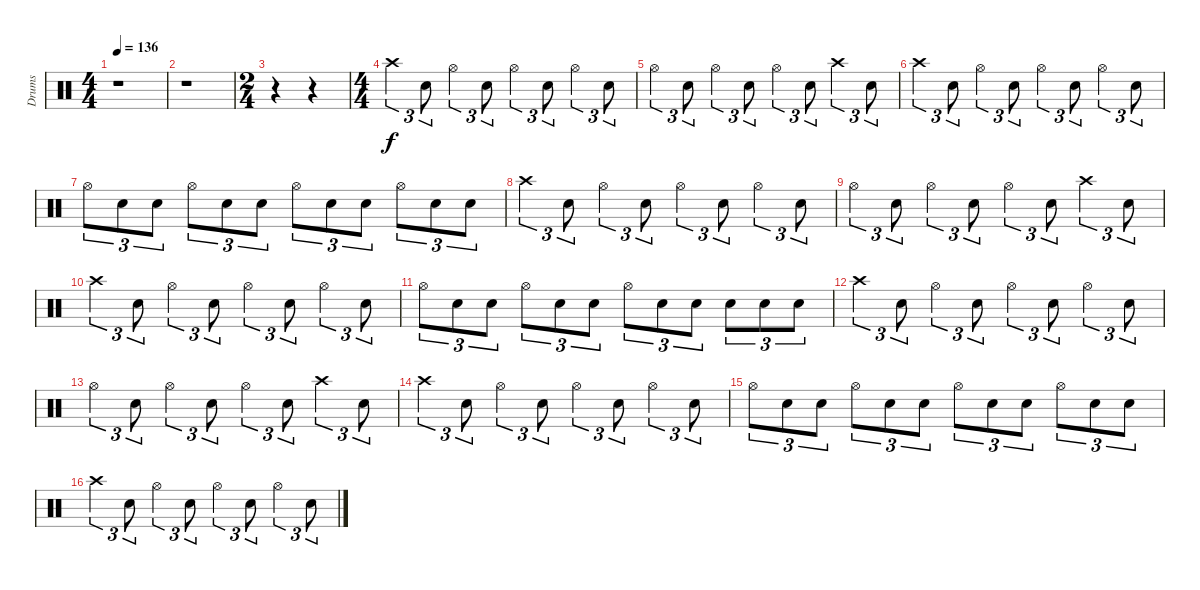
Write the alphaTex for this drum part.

\track ("Drums" "Drums") {instrument percussion}
\staff {score}
\articulation defaults
\ts (4 4)
\tempo 136
\clef neutral
\ks c
r.1{dy f} |
r.1 |
\ts (2 4)
r.4 r.4 |
\ts (4 4)
"Crash high (hit)".4{tu (3 2)} "Snare (hit) 2".8{tu (3 2)} "Hi-Hat (open)".4{tu (3 2)} "Snare (hit) 2".8{tu (3 2)} "Hi-Hat (open)".4{tu (3 2)} "Snare (hit) 2".8{tu (3 2)} "Hi-Hat (open)".4{tu (3 2)} "Snare (hit) 2".8{tu (3 2)} |
"Hi-Hat (open)".4{tu (3 2)} "Snare (hit) 2".8{tu (3 2)} "Hi-Hat (open)".4{tu (3 2)} "Snare (hit) 2".8{tu (3 2)} "Hi-Hat (open)".4{tu (3 2)} "Snare (hit) 2".8{tu (3 2)} "Crash high (hit)".4{tu (3 2)} "Snare (hit) 2".8{tu (3 2)} |
"Crash high (hit)".4{tu (3 2)} "Snare (hit) 2".8{tu (3 2)} "Hi-Hat (open)".4{tu (3 2)} "Snare (hit) 2".8{tu (3 2)} "Hi-Hat (open)".4{tu (3 2)} "Snare (hit) 2".8{tu (3 2)} "Hi-Hat (open)".4{tu (3 2)} "Snare (hit) 2".8{tu (3 2)} |
"Hi-Hat (open)".8{tu (3 2)} "Snare (hit) 2".8{tu (3 2)} "Snare (hit) 2".8{tu (3 2)} "Hi-Hat (open)".8{tu (3 2)} "Snare (hit) 2".8{tu (3 2)} "Snare (hit) 2".8{tu (3 2)} "Hi-Hat (open)".8{tu (3 2)} "Snare (hit) 2".8{tu (3 2)} "Snare (hit) 2".8{tu (3 2)} "Hi-Hat (open)".8{tu (3 2)} "Snare (hit) 2".8{tu (3 2)} "Snare (hit) 2".8{tu (3 2)} |
"Crash high (hit)".4{tu (3 2)} "Snare (hit) 2".8{tu (3 2)} "Hi-Hat (open)".4{tu (3 2)} "Snare (hit) 2".8{tu (3 2)} "Hi-Hat (open)".4{tu (3 2)} "Snare (hit) 2".8{tu (3 2)} "Hi-Hat (open)".4{tu (3 2)} "Snare (hit) 2".8{tu (3 2)} |
"Hi-Hat (open)".4{tu (3 2)} "Snare (hit) 2".8{tu (3 2)} "Hi-Hat (open)".4{tu (3 2)} "Snare (hit) 2".8{tu (3 2)} "Hi-Hat (open)".4{tu (3 2)} "Snare (hit) 2".8{tu (3 2)} "Crash high (hit)".4{tu (3 2)} "Snare (hit) 2".8{tu (3 2)} |
"Crash high (hit)".4{tu (3 2)} "Snare (hit) 2".8{tu (3 2)} "Hi-Hat (open)".4{tu (3 2)} "Snare (hit) 2".8{tu (3 2)} "Hi-Hat (open)".4{tu (3 2)} "Snare (hit) 2".8{tu (3 2)} "Hi-Hat (open)".4{tu (3 2)} "Snare (hit) 2".8{tu (3 2)} |
"Hi-Hat (open)".8{tu (3 2)} "Snare (hit) 2".8{tu (3 2)} "Snare (hit) 2".8{tu (3 2)} "Hi-Hat (open)".8{tu (3 2)} "Snare (hit) 2".8{tu (3 2)} "Snare (hit) 2".8{tu (3 2)} "Hi-Hat (open)".8{tu (3 2)} "Snare (hit) 2".8{tu (3 2)} "Snare (hit) 2".8{tu (3 2)} "Snare (hit) 2".8{tu (3 2)} "Snare (hit) 2".8{tu (3 2)} "Snare (hit) 2".8{tu (3 2)} |
"Crash high (hit)".4{tu (3 2)} "Snare (hit) 2".8{tu (3 2)} "Hi-Hat (open)".4{tu (3 2)} "Snare (hit) 2".8{tu (3 2)} "Hi-Hat (open)".4{tu (3 2)} "Snare (hit) 2".8{tu (3 2)} "Hi-Hat (open)".4{tu (3 2)} "Snare (hit) 2".8{tu (3 2)} |
"Hi-Hat (open)".4{tu (3 2)} "Snare (hit) 2".8{tu (3 2)} "Hi-Hat (open)".4{tu (3 2)} "Snare (hit) 2".8{tu (3 2)} "Hi-Hat (open)".4{tu (3 2)} "Snare (hit) 2".8{tu (3 2)} "Crash high (hit)".4{tu (3 2)} "Snare (hit) 2".8{tu (3 2)} |
"Crash high (hit)".4{tu (3 2)} "Snare (hit) 2".8{tu (3 2)} "Hi-Hat (open)".4{tu (3 2)} "Snare (hit) 2".8{tu (3 2)} "Hi-Hat (open)".4{tu (3 2)} "Snare (hit) 2".8{tu (3 2)} "Hi-Hat (open)".4{tu (3 2)} "Snare (hit) 2".8{tu (3 2)} |
"Hi-Hat (open)".8{tu (3 2)} "Snare (hit) 2".8{tu (3 2)} "Snare (hit) 2".8{tu (3 2)} "Hi-Hat (open)".8{tu (3 2)} "Snare (hit) 2".8{tu (3 2)} "Snare (hit) 2".8{tu (3 2)} "Hi-Hat (open)".8{tu (3 2)} "Snare (hit) 2".8{tu (3 2)} "Snare (hit) 2".8{tu (3 2)} "Hi-Hat (open)".8{tu (3 2)} "Snare (hit) 2".8{tu (3 2)} "Snare (hit) 2".8{tu (3 2)} |
"Crash high (hit)".4{tu (3 2)} "Snare (hit) 2".8{tu (3 2)} "Hi-Hat (open)".4{tu (3 2)} "Snare (hit) 2".8{tu (3 2)} "Hi-Hat (open)".4{tu (3 2)} "Snare (hit) 2".8{tu (3 2)} "Hi-Hat (open)".4{tu (3 2)} "Snare (hit) 2".8{tu (3 2)}
